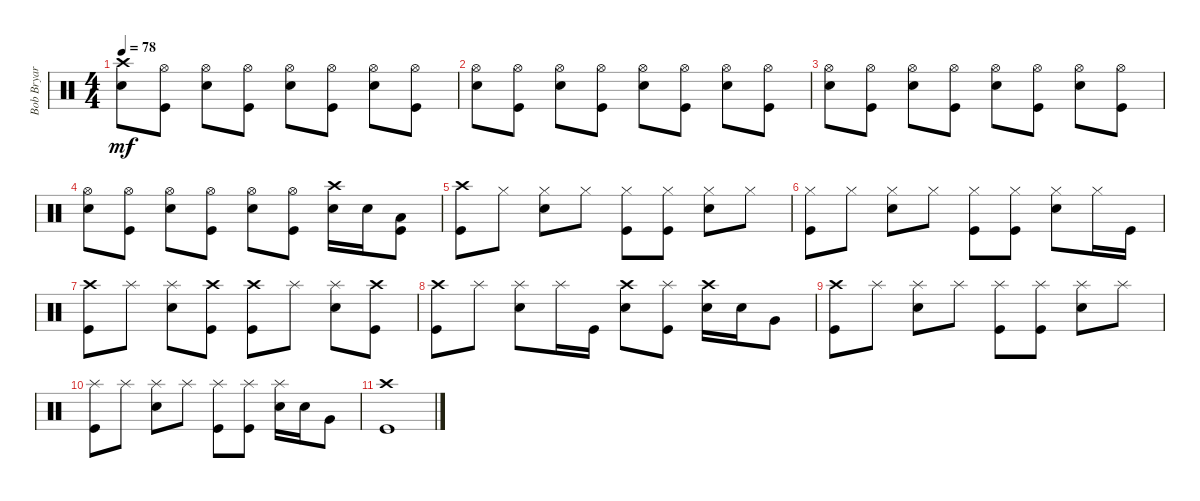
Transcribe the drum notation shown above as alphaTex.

\track ("Bob Bryar (drums)" "Bob Bryar ") {instrument percussion}
\staff {score}
\articulation defaults
\ts (4 4)
\tempo 78
\clef neutral
\ks c
("Crash high (hit)" "Snare (hit) 2").8{dy mf} ("Hi-Hat (open)" "Kick (hit)").8 ("Hi-Hat (open)" "Snare (hit) 2").8 ("Hi-Hat (open)" "Kick (hit)").8 ("Hi-Hat (open)" "Snare (hit) 2").8 ("Hi-Hat (open)" "Kick (hit)").8 ("Hi-Hat (open)" "Snare (hit) 2").8 ("Hi-Hat (open)" "Kick (hit)").8 |
("Hi-Hat (open)" "Snare (hit) 2").8 ("Hi-Hat (open)" "Kick (hit)").8 ("Hi-Hat (open)" "Snare (hit) 2").8 ("Hi-Hat (open)" "Kick (hit)").8 ("Hi-Hat (open)" "Snare (hit) 2").8 ("Hi-Hat (open)" "Kick (hit)").8 ("Hi-Hat (open)" "Snare (hit) 2").8 ("Hi-Hat (open)" "Kick (hit)").8 |
("Hi-Hat (open)" "Snare (hit) 2").8 ("Hi-Hat (open)" "Kick (hit)").8 ("Hi-Hat (open)" "Snare (hit) 2").8 ("Hi-Hat (open)" "Kick (hit)").8 ("Hi-Hat (open)" "Snare (hit) 2").8 ("Hi-Hat (open)" "Kick (hit)").8 ("Hi-Hat (open)" "Snare (hit) 2").8 ("Hi-Hat (open)" "Kick (hit)").8 |
("Hi-Hat (open)" "Snare (hit) 2").8 ("Hi-Hat (open)" "Kick (hit)").8 ("Hi-Hat (open)" "Snare (hit) 2").8 ("Hi-Hat (open)" "Kick (hit)").8 ("Hi-Hat (open)" "Snare (hit) 2").8 ("Hi-Hat (open)" "Kick (hit)").8 ("Crash high (hit)" "Snare (hit) 2").16 "Snare (hit) 2".16 ("Low Floor Tom (hit)" "Kick (hit)").8 |
("Crash high (hit)" "Kick (hit)").8 "Hi-Hat (closed)".8 ("Hi-Hat (closed)" "Snare (hit) 2").8 "Hi-Hat (closed)".8 ("Hi-Hat (closed)" "Kick (hit)").8 ("Hi-Hat (closed)" "Kick (hit)").8 ("Hi-Hat (closed)" "Snare (hit) 2").8 "Hi-Hat (closed)".8 |
("Hi-Hat (closed)" "Kick (hit)").8 "Hi-Hat (closed)".8 ("Hi-Hat (closed)" "Snare (hit) 2").8 "Hi-Hat (closed)".8 ("Hi-Hat (closed)" "Kick (hit)").8 ("Hi-Hat (closed)" "Kick (hit)").8 ("Hi-Hat (closed)" "Snare (hit) 2").8 "Hi-Hat (closed)".16 "Kick (hit)".16 |
("Crash high (hit)" "Kick (hit)").8 "Splash (hit)".8 ("Splash (hit)" "Snare (hit) 2").8 ("Crash high (hit)" "Kick (hit)").8 ("Crash high (hit)" "Kick (hit)").8 "Splash (hit)".8 ("Splash (hit)" "Snare (hit) 2").8 ("Crash high (hit)" "Kick (hit)").8 |
("Crash high (hit)" "Kick (hit)").8 "Splash (hit)".8 ("Splash (hit)" "Snare (hit) 2").8 "Splash (hit)".16 "Kick (hit)".16 ("Crash high (hit)" "Snare (hit) 2").8 ("Splash (hit)" "Kick (hit)").8 ("Crash high (hit)" "Snare (hit) 2").16 "Snare (hit) 2".16 "Very Low Tom (hit)".8 |
("Crash high (hit)" "Kick (hit)").8 "Splash (hit)".8 ("Splash (hit)" "Snare (hit) 2").8 "Splash (hit)".8 ("Splash (hit)" "Kick (hit)").8 ("Splash (hit)" "Kick (hit)").8 ("Splash (hit)" "Snare (hit) 2").8 "Splash (hit)".8 |
("Splash (hit)" "Kick (hit)").8 "Splash (hit)".8 ("Splash (hit)" "Snare (hit) 2").8 "Splash (hit)".8 ("Splash (hit)" "Kick (hit)").8 ("Splash (hit)" "Kick (hit)").8 ("Splash (hit)" "Snare (hit) 2").16 "Snare (hit) 2".16 "Very Low Tom (hit)".8 |
("Crash high (hit)" "Kick (hit)").1
